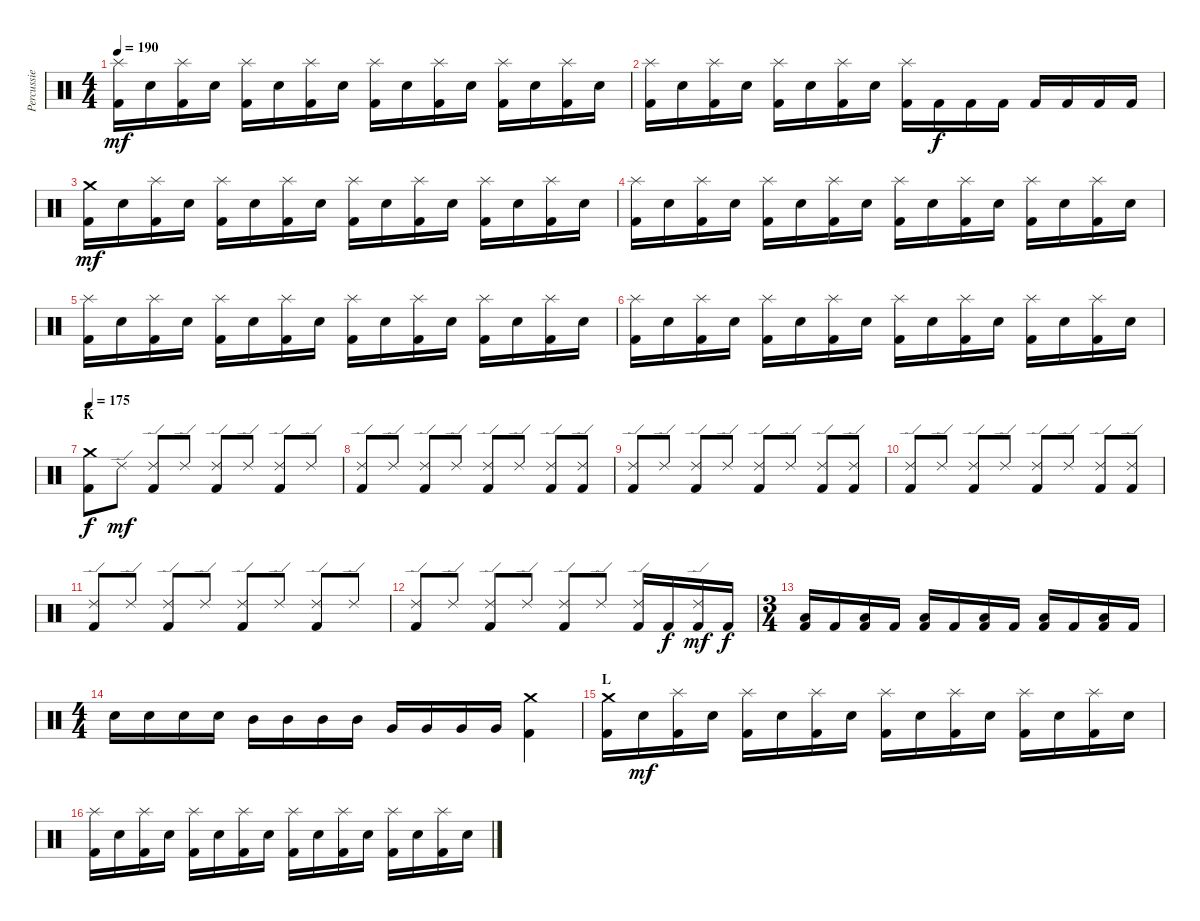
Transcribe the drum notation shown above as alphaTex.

\track ("Percussie" "Percussie") {instrument percussion}
\staff {score}
\articulation defaults
\ts (4 4)
\tempo 190
\clef neutral
\ks c
("Splash (hit)" "Kick (hit) 2").16{dy mf} "Electric Snare (hit)".16 ("Splash (hit)" "Kick (hit) 2").16 "Electric Snare (hit)".16 ("Splash (hit)" "Kick (hit) 2").16 "Electric Snare (hit)".16 ("Splash (hit)" "Kick (hit) 2").16 "Electric Snare (hit)".16 ("Splash (hit)" "Kick (hit) 2").16 "Electric Snare (hit)".16 ("Splash (hit)" "Kick (hit) 2").16 "Electric Snare (hit)".16 ("Splash (hit)" "Kick (hit) 2").16 "Electric Snare (hit)".16 ("Splash (hit)" "Kick (hit) 2").16 "Electric Snare (hit)".16 |
("Splash (hit)" "Kick (hit) 2").16 "Electric Snare (hit)".16 ("Splash (hit)" "Kick (hit) 2").16 "Electric Snare (hit)".16 ("Splash (hit)" "Kick (hit) 2").16 "Electric Snare (hit)".16 ("Splash (hit)" "Kick (hit) 2").16 "Electric Snare (hit)".16 ("Splash (hit)" "Kick (hit) 2").16 "Kick (hit) 2".16{dy f} "Kick (hit) 2".16 "Kick (hit) 2".16 "Kick (hit) 2".16 "Kick (hit) 2".16 "Kick (hit) 2".16 "Kick (hit) 2".16 |
("Crash medium (hit)" "Kick (hit) 2").16{dy mf} "Electric Snare (hit)".16 ("Splash (hit)" "Kick (hit) 2").16 "Electric Snare (hit)".16 ("Splash (hit)" "Kick (hit) 2").16 "Electric Snare (hit)".16 ("Splash (hit)" "Kick (hit) 2").16 "Electric Snare (hit)".16 ("Splash (hit)" "Kick (hit) 2").16 "Electric Snare (hit)".16 ("Splash (hit)" "Kick (hit) 2").16 "Electric Snare (hit)".16 ("Splash (hit)" "Kick (hit) 2").16 "Electric Snare (hit)".16 ("Splash (hit)" "Kick (hit) 2").16 "Electric Snare (hit)".16 |
("Splash (hit)" "Kick (hit) 2").16 "Electric Snare (hit)".16 ("Splash (hit)" "Kick (hit) 2").16 "Electric Snare (hit)".16 ("Splash (hit)" "Kick (hit) 2").16 "Electric Snare (hit)".16 ("Splash (hit)" "Kick (hit) 2").16 "Electric Snare (hit)".16 ("Splash (hit)" "Kick (hit) 2").16 "Electric Snare (hit)".16 ("Splash (hit)" "Kick (hit) 2").16 "Electric Snare (hit)".16 ("Splash (hit)" "Kick (hit) 2").16 "Electric Snare (hit)".16 ("Splash (hit)" "Kick (hit) 2").16 "Electric Snare (hit)".16 |
("Splash (hit)" "Kick (hit) 2").16 "Electric Snare (hit)".16 ("Splash (hit)" "Kick (hit) 2").16 "Electric Snare (hit)".16 ("Splash (hit)" "Kick (hit) 2").16 "Electric Snare (hit)".16 ("Splash (hit)" "Kick (hit) 2").16 "Electric Snare (hit)".16 ("Splash (hit)" "Kick (hit) 2").16 "Electric Snare (hit)".16 ("Splash (hit)" "Kick (hit) 2").16 "Electric Snare (hit)".16 ("Splash (hit)" "Kick (hit) 2").16 "Electric Snare (hit)".16 ("Splash (hit)" "Kick (hit) 2").16 "Electric Snare (hit)".16 |
("Splash (hit)" "Kick (hit) 2").16 "Electric Snare (hit)".16 ("Splash (hit)" "Kick (hit) 2").16 "Electric Snare (hit)".16 ("Splash (hit)" "Kick (hit) 2").16 "Electric Snare (hit)".16 ("Splash (hit)" "Kick (hit) 2").16 "Electric Snare (hit)".16 ("Splash (hit)" "Kick (hit) 2").16 "Electric Snare (hit)".16 ("Splash (hit)" "Kick (hit) 2").16 "Electric Snare (hit)".16 ("Splash (hit)" "Kick (hit) 2").16 "Electric Snare (hit)".16 ("Splash (hit)" "Kick (hit) 2").16 "Electric Snare (hit)".16 |
\section ("" "K")
\tempo 175
("Crash medium (hit)" "Kick (hit) 2").8{dy f} "Ride (edge) 2".8{dy mf} ("Ride (edge) 2" "Kick (hit) 2").8 "Ride (edge) 2".8 ("Ride (edge) 2" "Kick (hit) 2").8 "Ride (edge) 2".8 ("Ride (edge) 2" "Kick (hit) 2").8 "Ride (edge) 2".8 |
("Ride (edge) 2" "Kick (hit) 2").8 "Ride (edge) 2".8 ("Ride (edge) 2" "Kick (hit) 2").8 "Ride (edge) 2".8 ("Ride (edge) 2" "Kick (hit) 2").8 "Ride (edge) 2".8 ("Ride (edge) 2" "Kick (hit) 2").8 ("Ride (edge) 2" "Kick (hit) 2").8 |
("Ride (edge) 2" "Kick (hit) 2").8 "Ride (edge) 2".8 ("Ride (edge) 2" "Kick (hit) 2").8 "Ride (edge) 2".8 ("Ride (edge) 2" "Kick (hit) 2").8 "Ride (edge) 2".8 ("Ride (edge) 2" "Kick (hit) 2").8 ("Ride (edge) 2" "Kick (hit) 2").8 |
("Ride (edge) 2" "Kick (hit) 2").8 "Ride (edge) 2".8 ("Ride (edge) 2" "Kick (hit) 2").8 "Ride (edge) 2".8 ("Ride (edge) 2" "Kick (hit) 2").8 "Ride (edge) 2".8 ("Ride (edge) 2" "Kick (hit) 2").8 ("Ride (edge) 2" "Kick (hit) 2").8 |
("Ride (edge) 2" "Kick (hit) 2").8 "Ride (edge) 2".8 ("Ride (edge) 2" "Kick (hit) 2").8 "Ride (edge) 2".8 ("Ride (edge) 2" "Kick (hit) 2").8 "Ride (edge) 2".8 ("Ride (edge) 2" "Kick (hit) 2").8 "Ride (edge) 2".8 |
("Ride (edge) 2" "Kick (hit) 2").8 "Ride (edge) 2".8 ("Ride (edge) 2" "Kick (hit) 2").8 "Ride (edge) 2".8 ("Ride (edge) 2" "Kick (hit) 2").8 "Ride (edge) 2".8 ("Ride (edge) 2" "Kick (hit) 2").16 "Kick (hit) 2".16{dy f} ("Ride (edge) 2" "Kick (hit) 2").16{dy mf} "Kick (hit) 2".16{dy f} |
\ts (3 4)
("Low Tom (hit)" "Kick (hit) 2").16 "Kick (hit) 2".16 ("Low Tom (hit)" "Kick (hit) 2").16 "Kick (hit) 2".16 ("Low Tom (hit)" "Kick (hit) 2").16 "Kick (hit) 2".16 ("Low Tom (hit)" "Kick (hit) 2").16 "Kick (hit) 2".16 ("Low Tom (hit)" "Kick (hit) 2").16 "Kick (hit) 2".16 ("Low Tom (hit)" "Kick (hit) 2").16 "Kick (hit) 2".16 |
\ts (4 4)
"Electric Snare (hit)".16 "Electric Snare (hit)".16 "Electric Snare (hit)".16 "Electric Snare (hit)".16 "Mid Tom (hit)".16 "Mid Tom (hit)".16 "Mid Tom (hit)".16 "Mid Tom (hit)".16 "Very Low Tom (hit)".16 "Very Low Tom (hit)".16 "Very Low Tom (hit)".16 "Very Low Tom (hit)".16 ("Crash medium (hit)" "Kick (hit) 2").4 |
\section ("" "L")
("Crash medium (hit)" "Kick (hit) 2").16 "Electric Snare (hit)".16{dy mf} ("Splash (hit)" "Kick (hit) 2").16 "Electric Snare (hit)".16 ("Splash (hit)" "Kick (hit) 2").16 "Electric Snare (hit)".16 ("Splash (hit)" "Kick (hit) 2").16 "Electric Snare (hit)".16 ("Splash (hit)" "Kick (hit) 2").16 "Electric Snare (hit)".16 ("Splash (hit)" "Kick (hit) 2").16 "Electric Snare (hit)".16 ("Splash (hit)" "Kick (hit) 2").16 "Electric Snare (hit)".16 ("Splash (hit)" "Kick (hit) 2").16 "Electric Snare (hit)".16 |
("Splash (hit)" "Kick (hit) 2").16 "Electric Snare (hit)".16 ("Splash (hit)" "Kick (hit) 2").16 "Electric Snare (hit)".16 ("Splash (hit)" "Kick (hit) 2").16 "Electric Snare (hit)".16 ("Splash (hit)" "Kick (hit) 2").16 "Electric Snare (hit)".16 ("Splash (hit)" "Kick (hit) 2").16 "Electric Snare (hit)".16 ("Splash (hit)" "Kick (hit) 2").16 "Electric Snare (hit)".16 ("Splash (hit)" "Kick (hit) 2").16 "Electric Snare (hit)".16 ("Splash (hit)" "Kick (hit) 2").16 "Electric Snare (hit)".16
